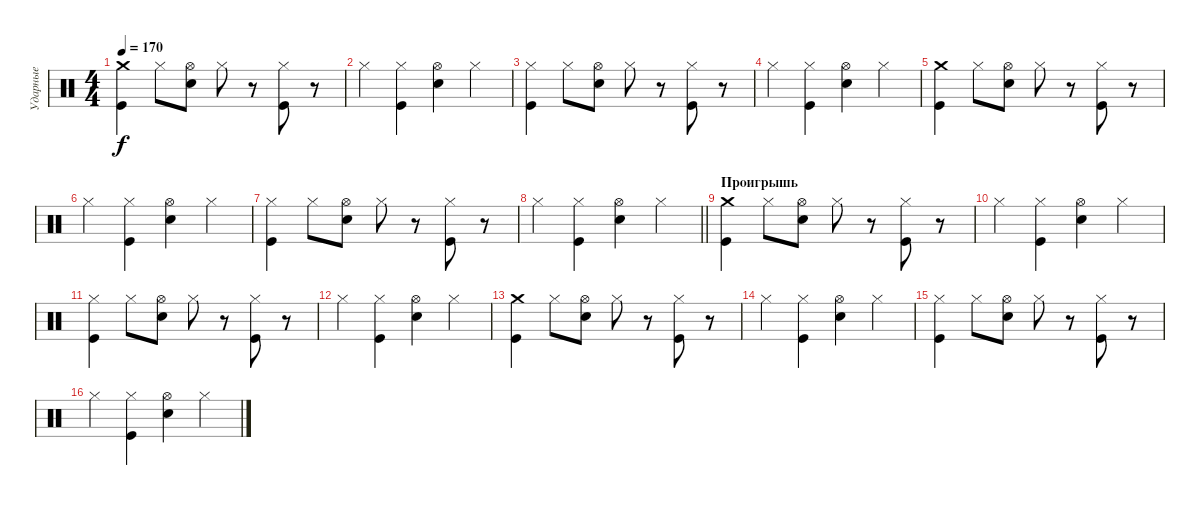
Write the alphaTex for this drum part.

\track ("Ударные" "Ударные") {instrument percussion}
\staff {score}
\articulation defaults
\ts (4 4)
\tempo 170
\clef neutral
\ks c
("Kick (hit)" "Crash medium (hit)").4{dy f} "Hi-Hat (closed)".8 ("Snare (hit) 2" "Hi-Hat (open)").8 "Hi-Hat (closed)".8 r.8 ("Kick (hit)" "Hi-Hat (closed)").8 r.8 |
"Hi-Hat (closed)".4 ("Kick (hit)" "Hi-Hat (closed)").4 ("Snare (hit) 2" "Hi-Hat (open)").4 "Hi-Hat (closed)".4 |
("Kick (hit)" "Hi-Hat (closed)").4 "Hi-Hat (closed)".8 ("Snare (hit) 2" "Hi-Hat (open)").8 "Hi-Hat (closed)".8 r.8 ("Kick (hit)" "Hi-Hat (closed)").8 r.8 |
"Hi-Hat (closed)".4 ("Kick (hit)" "Hi-Hat (closed)").4 ("Snare (hit) 2" "Hi-Hat (open)").4 "Hi-Hat (closed)".4 |
("Kick (hit)" "Crash medium (hit)").4 "Hi-Hat (closed)".8 ("Snare (hit) 2" "Hi-Hat (open)").8 "Hi-Hat (closed)".8 r.8 ("Kick (hit)" "Hi-Hat (closed)").8 r.8 |
"Hi-Hat (closed)".4 ("Kick (hit)" "Hi-Hat (closed)").4 ("Snare (hit) 2" "Hi-Hat (open)").4 "Hi-Hat (closed)".4 |
("Kick (hit)" "Hi-Hat (closed)").4 "Hi-Hat (closed)".8 ("Snare (hit) 2" "Hi-Hat (open)").8 "Hi-Hat (closed)".8 r.8 ("Kick (hit)" "Hi-Hat (closed)").8 r.8 |
\barLineRight lightlight "Hi-Hat (closed)".4
("Kick (hit)" "Hi-Hat (closed)").4 ("Snare (hit) 2" "Hi-Hat (open)").4 "Hi-Hat (closed)".4 |
\section ("" "Проигрышь")
("Kick (hit)" "Crash medium (hit)").4 "Hi-Hat (closed)".8 ("Snare (hit) 2" "Hi-Hat (open)").8 "Hi-Hat (closed)".8 r.8 ("Kick (hit)" "Hi-Hat (closed)").8 r.8 |
"Hi-Hat (closed)".4 ("Kick (hit)" "Hi-Hat (closed)").4 ("Snare (hit) 2" "Hi-Hat (open)").4 "Hi-Hat (closed)".4 |
("Kick (hit)" "Hi-Hat (closed)").4 "Hi-Hat (closed)".8 ("Snare (hit) 2" "Hi-Hat (open)").8 "Hi-Hat (closed)".8 r.8 ("Kick (hit)" "Hi-Hat (closed)").8 r.8 |
"Hi-Hat (closed)".4 ("Kick (hit)" "Hi-Hat (closed)").4 ("Snare (hit) 2" "Hi-Hat (open)").4 "Hi-Hat (closed)".4 |
("Kick (hit)" "Crash medium (hit)").4 "Hi-Hat (closed)".8 ("Snare (hit) 2" "Hi-Hat (open)").8 "Hi-Hat (closed)".8 r.8 ("Kick (hit)" "Hi-Hat (closed)").8 r.8 |
"Hi-Hat (closed)".4 ("Kick (hit)" "Hi-Hat (closed)").4 ("Snare (hit) 2" "Hi-Hat (open)").4 "Hi-Hat (closed)".4 |
("Kick (hit)" "Hi-Hat (closed)").4 "Hi-Hat (closed)".8 ("Snare (hit) 2" "Hi-Hat (open)").8 "Hi-Hat (closed)".8 r.8 ("Kick (hit)" "Hi-Hat (closed)").8 r.8 |
"Hi-Hat (closed)".4 ("Kick (hit)" "Hi-Hat (closed)").4 ("Snare (hit) 2" "Hi-Hat (open)").4 "Hi-Hat (closed)".4
